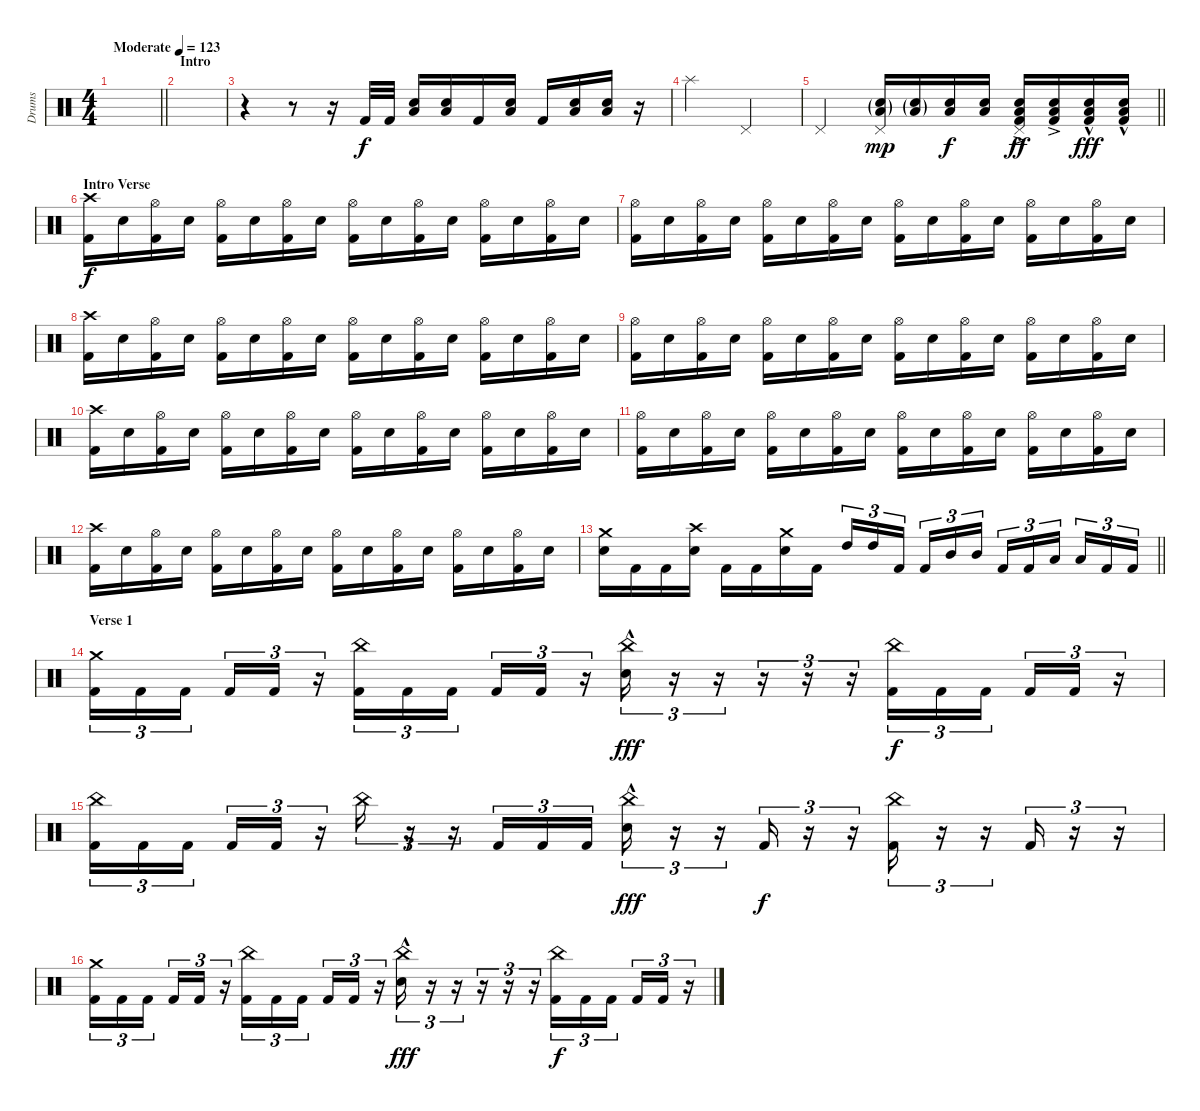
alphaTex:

\track ("Drums" "Drums") {instrument percussion}
\staff {score}
\articulation defaults
\ts (4 4)
\tempo (123 "Moderate")
\clef neutral
\barLineRight lightlight
\ks c
|
\section ("" "Intro")
|
r.4 r.8 r.16 "Kick (hit) 2".32 "Kick (hit) 2".32 ("Low Tom (hit)" "Snare (hit) 2").16 ("Low Tom (hit)" "Snare (hit) 2").16 "Kick (hit) 2".16 ("Low Tom (hit)" "Snare (hit) 2").16 "Kick (hit) 2".16 ("Low Tom (hit)" "Snare (hit) 2").16 ("Low Tom (hit)" "Snare (hit) 2").16 r.16 |
"Splash (hit)".2 "Pedal Hi-Hat (hit)".2 |
\barLineRight lightlight "Pedal Hi-Hat (hit)".2
("Pedal Hi-Hat (hit)" "Low Tom (hit)"{g} "Snare (hit) 2"{g}).16{dy mp} ("Low Tom (hit)"{g} "Snare (hit) 2"{g}).16 ("Low Tom (hit)" "Snare (hit) 2").16{dy f} ("Low Tom (hit)" "Snare (hit) 2").16 ("Pedal Hi-Hat (hit)" "Low Tom (hit)"{ac} "Snare (hit) 2"{ac} "Kick (hit) 2").16{dy ff} ("Low Tom (hit)"{ac} "Snare (hit) 2"{ac} "Kick (hit) 2").16 ("Low Tom (hit)"{hac} "Snare (hit) 2"{hac} "Kick (hit) 2").16{dy fff} ("Low Tom (hit)"{hac} "Snare (hit) 2"{hac} "Kick (hit) 2").16 |
\section ("" "Intro Verse")
("Crash high (hit)" "Kick (hit) 2").16{dy f} "Snare (hit) 2".16 ("Hi-Hat (open)" "Kick (hit) 2").16 "Snare (hit) 2".16 ("Hi-Hat (open)" "Kick (hit) 2").16 "Snare (hit) 2".16 ("Hi-Hat (open)" "Kick (hit) 2").16 "Snare (hit) 2".16 ("Hi-Hat (open)" "Kick (hit) 2").16 "Snare (hit) 2".16 ("Hi-Hat (open)" "Kick (hit) 2").16 "Snare (hit) 2".16 ("Hi-Hat (open)" "Kick (hit) 2").16 "Snare (hit) 2".16 ("Hi-Hat (open)" "Kick (hit) 2").16 "Snare (hit) 2".16 |
("Hi-Hat (open)" "Kick (hit) 2").16 "Snare (hit) 2".16 ("Hi-Hat (open)" "Kick (hit) 2").16 "Snare (hit) 2".16 ("Hi-Hat (open)" "Kick (hit) 2").16 "Snare (hit) 2".16 ("Hi-Hat (open)" "Kick (hit) 2").16 "Snare (hit) 2".16 ("Hi-Hat (open)" "Kick (hit) 2").16 "Snare (hit) 2".16 ("Hi-Hat (open)" "Kick (hit) 2").16 "Snare (hit) 2".16 ("Hi-Hat (open)" "Kick (hit) 2").16 "Snare (hit) 2".16 ("Hi-Hat (open)" "Kick (hit) 2").16 "Snare (hit) 2".16 |
("Crash high (hit)" "Kick (hit) 2").16 "Snare (hit) 2".16 ("Hi-Hat (open)" "Kick (hit) 2").16 "Snare (hit) 2".16 ("Hi-Hat (open)" "Kick (hit) 2").16 "Snare (hit) 2".16 ("Hi-Hat (open)" "Kick (hit) 2").16 "Snare (hit) 2".16 ("Hi-Hat (open)" "Kick (hit) 2").16 "Snare (hit) 2".16 ("Hi-Hat (open)" "Kick (hit) 2").16 "Snare (hit) 2".16 ("Hi-Hat (open)" "Kick (hit) 2").16 "Snare (hit) 2".16 ("Hi-Hat (open)" "Kick (hit) 2").16 "Snare (hit) 2".16 |
("Hi-Hat (open)" "Kick (hit) 2").16 "Snare (hit) 2".16 ("Hi-Hat (open)" "Kick (hit) 2").16 "Snare (hit) 2".16 ("Hi-Hat (open)" "Kick (hit) 2").16 "Snare (hit) 2".16 ("Hi-Hat (open)" "Kick (hit) 2").16 "Snare (hit) 2".16 ("Hi-Hat (open)" "Kick (hit) 2").16 "Snare (hit) 2".16 ("Hi-Hat (open)" "Kick (hit) 2").16 "Snare (hit) 2".16 ("Hi-Hat (open)" "Kick (hit) 2").16 "Snare (hit) 2".16 ("Hi-Hat (open)" "Kick (hit) 2").16 "Snare (hit) 2".16 |
("Crash high (hit)" "Kick (hit) 2").16 "Snare (hit) 2".16 ("Hi-Hat (open)" "Kick (hit) 2").16 "Snare (hit) 2".16 ("Hi-Hat (open)" "Kick (hit) 2").16 "Snare (hit) 2".16 ("Hi-Hat (open)" "Kick (hit) 2").16 "Snare (hit) 2".16 ("Hi-Hat (open)" "Kick (hit) 2").16 "Snare (hit) 2".16 ("Hi-Hat (open)" "Kick (hit) 2").16 "Snare (hit) 2".16 ("Hi-Hat (open)" "Kick (hit) 2").16 "Snare (hit) 2".16 ("Hi-Hat (open)" "Kick (hit) 2").16 "Snare (hit) 2".16 |
("Hi-Hat (open)" "Kick (hit) 2").16 "Snare (hit) 2".16 ("Hi-Hat (open)" "Kick (hit) 2").16 "Snare (hit) 2".16 ("Hi-Hat (open)" "Kick (hit) 2").16 "Snare (hit) 2".16 ("Hi-Hat (open)" "Kick (hit) 2").16 "Snare (hit) 2".16 ("Hi-Hat (open)" "Kick (hit) 2").16 "Snare (hit) 2".16 ("Hi-Hat (open)" "Kick (hit) 2").16 "Snare (hit) 2".16 ("Hi-Hat (open)" "Kick (hit) 2").16 "Snare (hit) 2".16 ("Hi-Hat (open)" "Kick (hit) 2").16 "Snare (hit) 2".16 |
("Crash high (hit)" "Kick (hit) 2").16 "Snare (hit) 2".16 ("Hi-Hat (open)" "Kick (hit) 2").16 "Snare (hit) 2".16 ("Hi-Hat (open)" "Kick (hit) 2").16 "Snare (hit) 2".16 ("Hi-Hat (open)" "Kick (hit) 2").16 "Snare (hit) 2".16 ("Hi-Hat (open)" "Kick (hit) 2").16 "Snare (hit) 2".16 ("Hi-Hat (open)" "Kick (hit) 2").16 "Snare (hit) 2".16 ("Hi-Hat (open)" "Kick (hit) 2").16 "Snare (hit) 2".16 ("Hi-Hat (open)" "Kick (hit) 2").16 "Snare (hit) 2".16 |
\barLineRight lightlight
("Crash medium (hit)" "Snare (hit) 2").16 "Kick (hit) 2".16 "Kick (hit) 2".16 ("Crash high (hit)" "Snare (hit) 2").16 "Kick (hit) 2".16 "Kick (hit) 2".16 ("Crash medium (hit)" "Snare (hit) 2").16 "Kick (hit) 2".16 "High Tom (hit)".16{tu (3 2)} "High Tom (hit)".16{tu (3 2)} "Kick (hit) 2".16{tu (3 2) beam splitsecondary} "Kick (hit) 2".16{tu (3 2)} "Mid Tom (hit)".16{tu (3 2)} "Mid Tom (hit)".16{tu (3 2)} "Kick (hit) 2".16{tu (3 2)} "Kick (hit) 2".16{tu (3 2)} "Low Tom (hit)".16{tu (3 2) beam splitsecondary} "Low Tom (hit)".16{tu (3 2)} "Kick (hit) 2".16{tu (3 2)} "Kick (hit) 2".16{tu (3 2)} |
\section ("" "Verse 1")
("Crash medium (hit)" "Kick (hit) 2").16{tu (3 2)} "Kick (hit) 2".16{tu (3 2)} "Kick (hit) 2".16{tu (3 2) beam splitsecondary} "Kick (hit) 2".16{tu (3 2)} "Kick (hit) 2".16{tu (3 2)} r.16{tu (3 2)} ("China (hit)" "Kick (hit) 2").16{tu (3 2)} "Kick (hit) 2".16{tu (3 2)} "Kick (hit) 2".16{tu (3 2) beam splitsecondary} "Kick (hit) 2".16{tu (3 2)} "Kick (hit) 2".16{tu (3 2)} r.16{tu (3 2)} ("China (hit)" "Snare (hit) 2"{hac}).16{tu (3 2) dy fff} r.16{tu (3 2)} r.16{tu (3 2)} r.16{tu (3 2)} r.16{tu (3 2)} r.16{tu (3 2)} ("China (hit)" "Kick (hit) 2").16{tu (3 2) dy f} "Kick (hit) 2".16{tu (3 2)} "Kick (hit) 2".16{tu (3 2) beam splitsecondary} "Kick (hit) 2".16{tu (3 2)} "Kick (hit) 2".16{tu (3 2)} r.16{tu (3 2)} |
("China (hit)" "Kick (hit) 2").16{tu (3 2)} "Kick (hit) 2".16{tu (3 2)} "Kick (hit) 2".16{tu (3 2) beam splitsecondary} "Kick (hit) 2".16{tu (3 2)} "Kick (hit) 2".16{tu (3 2)} r.16{tu (3 2)} "China (hit)".16{tu (3 2)} r.16{tu (3 2)} r.16{tu (3 2)} "Kick (hit) 2".16{tu (3 2)} "Kick (hit) 2".16{tu (3 2)} "Kick (hit) 2".16{tu (3 2)} ("China (hit)" "Snare (hit) 2"{hac}).16{tu (3 2) dy fff} r.16{tu (3 2)} r.16{tu (3 2)} "Kick (hit) 2".16{tu (3 2) dy f} r.16{tu (3 2)} r.16{tu (3 2)} ("China (hit)" "Kick (hit) 2").16{tu (3 2)} r.16{tu (3 2)} r.16{tu (3 2)} "Kick (hit) 2".16{tu (3 2)} r.16{tu (3 2)} r.16{tu (3 2)} |
("Crash medium (hit)" "Kick (hit) 2").16{tu (3 2)} "Kick (hit) 2".16{tu (3 2)} "Kick (hit) 2".16{tu (3 2) beam splitsecondary} "Kick (hit) 2".16{tu (3 2)} "Kick (hit) 2".16{tu (3 2)} r.16{tu (3 2)} ("China (hit)" "Kick (hit) 2").16{tu (3 2)} "Kick (hit) 2".16{tu (3 2)} "Kick (hit) 2".16{tu (3 2) beam splitsecondary} "Kick (hit) 2".16{tu (3 2)} "Kick (hit) 2".16{tu (3 2)} r.16{tu (3 2)} ("China (hit)" "Snare (hit) 2"{hac}).16{tu (3 2) dy fff} r.16{tu (3 2)} r.16{tu (3 2)} r.16{tu (3 2)} r.16{tu (3 2)} r.16{tu (3 2)} ("China (hit)" "Kick (hit) 2").16{tu (3 2) dy f} "Kick (hit) 2".16{tu (3 2)} "Kick (hit) 2".16{tu (3 2) beam splitsecondary} "Kick (hit) 2".16{tu (3 2)} "Kick (hit) 2".16{tu (3 2)} r.16{tu (3 2)}
